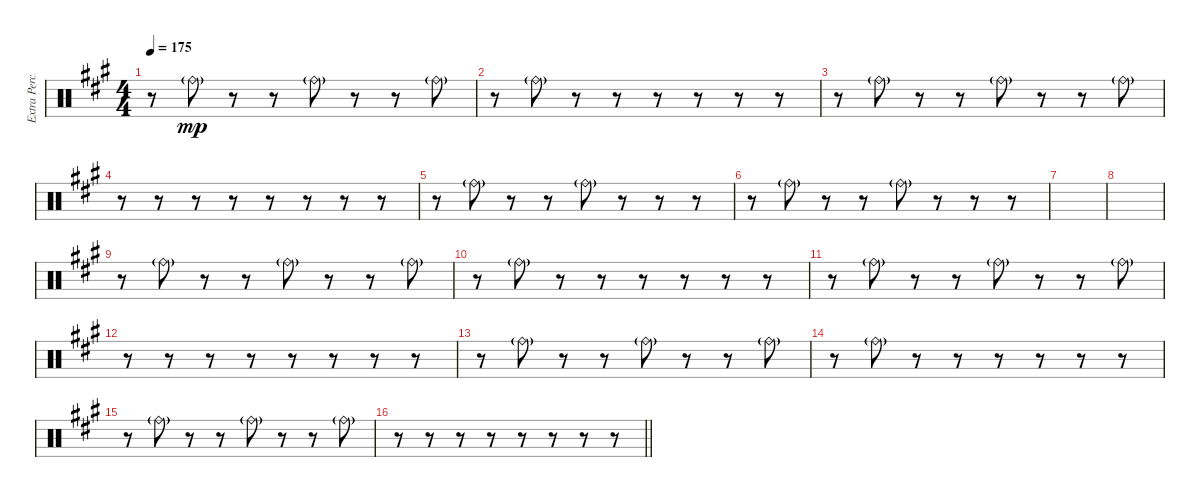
\track ("Extra Percussion" "Extra Perc") {instrument percussion}
\staff {score}
\articulation defaults
\ts (4 4)
\tempo 175
\clef neutral
\ks f#minor
r.8{dy mp} "Ride (bell)"{g}.8 r.8 r.8 "Ride (bell)"{g}.8 r.8 r.8 "Ride (bell)"{g}.8 |
r.8 "Ride (bell)"{g}.8 r.8 r.8 r.8 r.8 r.8 r.8 |
r.8 "Ride (bell)"{g}.8 r.8 r.8 "Ride (bell)"{g}.8 r.8 r.8 "Ride (bell)"{g}.8 |
r.8 r.8 r.8 r.8 r.8 r.8 r.8 r.8 |
r.8 "Ride (bell)"{g}.8 r.8 r.8 "Ride (bell)"{g}.8 r.8 r.8 r.8 |
r.8 "Ride (bell)"{g}.8 r.8 r.8 "Ride (bell)"{g}.8 r.8 r.8 r.8 |
|
|
r.8 "Ride (bell)"{g}.8 r.8 r.8 "Ride (bell)"{g}.8 r.8 r.8 "Ride (bell)"{g}.8 |
r.8 "Ride (bell)"{g}.8 r.8 r.8 r.8 r.8 r.8 r.8 |
r.8 "Ride (bell)"{g}.8 r.8 r.8 "Ride (bell)"{g}.8 r.8 r.8 "Ride (bell)"{g}.8 |
r.8 r.8 r.8 r.8 r.8 r.8 r.8 r.8 |
r.8 "Ride (bell)"{g}.8 r.8 r.8 "Ride (bell)"{g}.8 r.8 r.8 "Ride (bell)"{g}.8 |
r.8 "Ride (bell)"{g}.8 r.8 r.8 r.8 r.8 r.8 r.8 |
r.8 "Ride (bell)"{g}.8 r.8 r.8 "Ride (bell)"{g}.8 r.8 r.8 "Ride (bell)"{g}.8 |
\barLineRight lightlight
r.8 r.8 r.8 r.8 r.8 r.8 r.8 r.8
